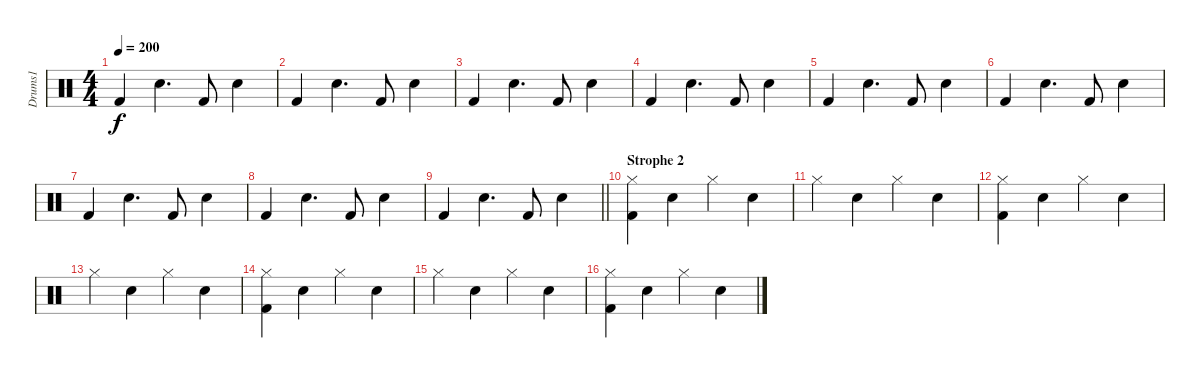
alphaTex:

\track ("Drums1" "Drums1") {instrument percussion}
\staff {score}
\articulation defaults
\ts (4 4)
\tempo 200
\clef neutral
\ks c "Kick (hit) 2".4{dy f} "Snare (hit) 2".4{d} "Kick (hit) 2".8 "Snare (hit) 2".4
|
"Kick (hit) 2".4 "Snare (hit) 2".4{d} "Kick (hit) 2".8 "Snare (hit) 2".4 |
"Kick (hit) 2".4 "Snare (hit) 2".4{d} "Kick (hit) 2".8 "Snare (hit) 2".4 |
"Kick (hit) 2".4 "Snare (hit) 2".4{d} "Kick (hit) 2".8 "Snare (hit) 2".4 |
"Kick (hit) 2".4 "Snare (hit) 2".4{d} "Kick (hit) 2".8 "Snare (hit) 2".4 |
"Kick (hit) 2".4 "Snare (hit) 2".4{d} "Kick (hit) 2".8 "Snare (hit) 2".4 |
"Kick (hit) 2".4 "Snare (hit) 2".4{d} "Kick (hit) 2".8 "Snare (hit) 2".4 |
"Kick (hit) 2".4 "Snare (hit) 2".4{d} "Kick (hit) 2".8 "Snare (hit) 2".4 |
\barLineRight lightlight "Kick (hit) 2".4 "Snare (hit) 2".4{d} "Kick (hit) 2".8 "Snare (hit) 2".4
|
\section ("" "Strophe 2")
("Kick (hit) 2" "Hi-Hat (closed)").4 "Snare (hit) 2".4 "Hi-Hat (closed)".4 "Snare (hit) 2".4 |
"Hi-Hat (closed)".4 "Snare (hit) 2".4 "Hi-Hat (closed)".4 "Snare (hit) 2".4 |
("Kick (hit) 2" "Hi-Hat (closed)").4 "Snare (hit) 2".4 "Hi-Hat (closed)".4 "Snare (hit) 2".4 |
"Hi-Hat (closed)".4 "Snare (hit) 2".4 "Hi-Hat (closed)".4 "Snare (hit) 2".4 |
("Kick (hit) 2" "Hi-Hat (closed)").4 "Snare (hit) 2".4 "Hi-Hat (closed)".4 "Snare (hit) 2".4 |
"Hi-Hat (closed)".4 "Snare (hit) 2".4 "Hi-Hat (closed)".4 "Snare (hit) 2".4 |
("Kick (hit) 2" "Hi-Hat (closed)").4 "Snare (hit) 2".4 "Hi-Hat (closed)".4 "Snare (hit) 2".4
